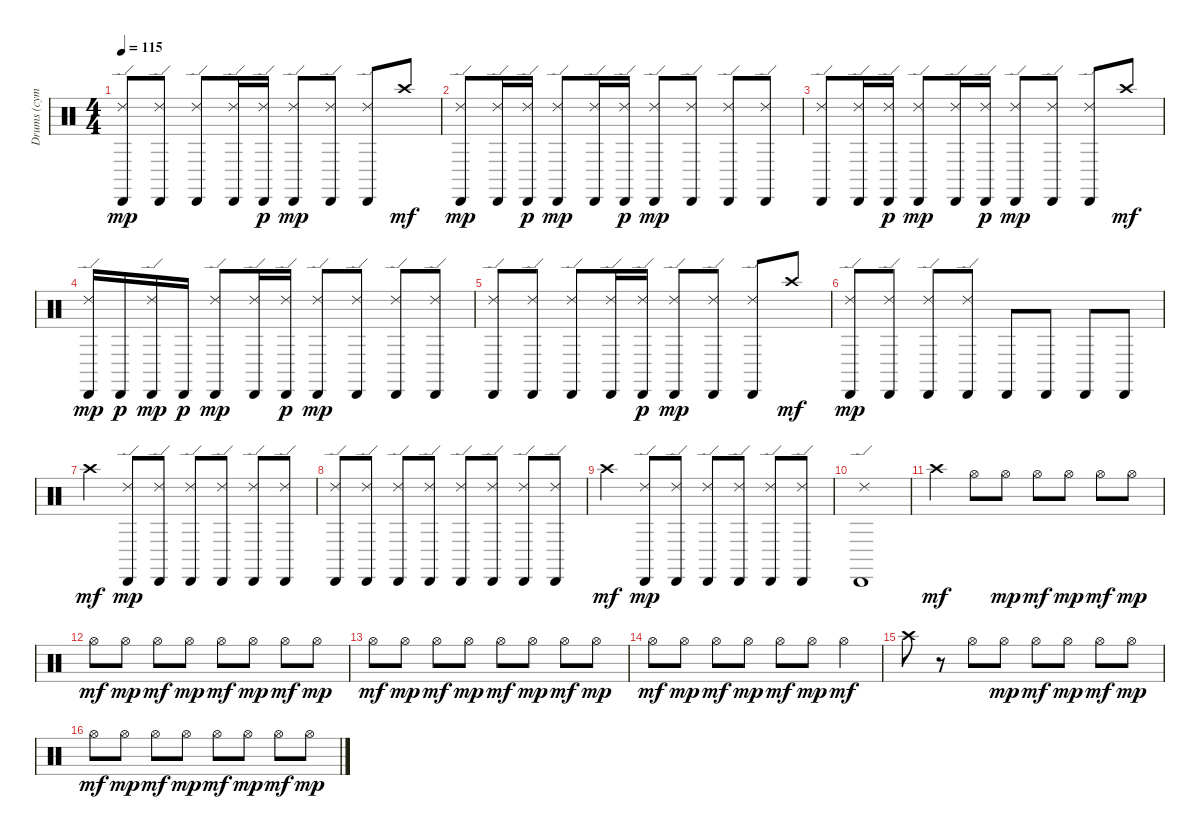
\track ("Drums (cymbals)" "Drums (cym") {instrument percussion}
\staff {score}
\articulation defaults
\ts (4 4)
\tempo 115
\clef neutral
\ks c
("Ride (edge) 2" "Cabasa (hit)").8{dy mp} ("Ride (edge) 2" "Cabasa (hit)").8 ("Ride (edge) 2" "Cabasa (hit)").8 ("Ride (edge) 2" "Cabasa (hit)").16 ("Ride (edge) 2" "Cabasa (hit)").16{dy p} ("Ride (edge) 2" "Cabasa (hit)").8{dy mp} ("Ride (edge) 2" "Cabasa (hit)").8 ("Ride (edge) 2" "Cabasa (hit)").8 "Crash high (hit)".8{dy mf} |
("Ride (edge) 2" "Cabasa (hit)").8{dy mp} ("Ride (edge) 2" "Cabasa (hit)").16 ("Ride (edge) 2" "Cabasa (hit)").16{dy p} ("Ride (edge) 2" "Cabasa (hit)").8{dy mp} ("Ride (edge) 2" "Cabasa (hit)").16 ("Ride (edge) 2" "Cabasa (hit)").16{dy p} ("Ride (edge) 2" "Cabasa (hit)").8{dy mp} ("Ride (edge) 2" "Cabasa (hit)").8 ("Ride (edge) 2" "Cabasa (hit)").8 ("Ride (edge) 2" "Cabasa (hit)").8 |
("Ride (edge) 2" "Cabasa (hit)").8 ("Ride (edge) 2" "Cabasa (hit)").16 ("Ride (edge) 2" "Cabasa (hit)").16{dy p} ("Ride (edge) 2" "Cabasa (hit)").8{dy mp} ("Ride (edge) 2" "Cabasa (hit)").16 ("Ride (edge) 2" "Cabasa (hit)").16{dy p} ("Ride (edge) 2" "Cabasa (hit)").8{dy mp} ("Ride (edge) 2" "Cabasa (hit)").8 ("Ride (edge) 2" "Cabasa (hit)").8 "Crash high (hit)".8{dy mf} |
("Ride (edge) 2" "Cabasa (hit)").16{dy mp} "Cabasa (hit)".16{dy p} ("Ride (edge) 2" "Cabasa (hit)").16{dy mp} "Cabasa (hit)".16{dy p} ("Ride (edge) 2" "Cabasa (hit)").8{dy mp} ("Ride (edge) 2" "Cabasa (hit)").16 ("Ride (edge) 2" "Cabasa (hit)").16{dy p} ("Ride (edge) 2" "Cabasa (hit)").8{dy mp} ("Ride (edge) 2" "Cabasa (hit)").8 ("Ride (edge) 2" "Cabasa (hit)").8 ("Ride (edge) 2" "Cabasa (hit)").8 |
("Ride (edge) 2" "Cabasa (hit)").8 ("Ride (edge) 2" "Cabasa (hit)").8 ("Ride (edge) 2" "Cabasa (hit)").8 ("Ride (edge) 2" "Cabasa (hit)").16 ("Ride (edge) 2" "Cabasa (hit)").16{dy p} ("Ride (edge) 2" "Cabasa (hit)").8{dy mp} ("Ride (edge) 2" "Cabasa (hit)").8 ("Ride (edge) 2" "Cabasa (hit)").8 "Crash high (hit)".8{dy mf} |
("Ride (edge) 2" "Cabasa (hit)").8{dy mp} ("Ride (edge) 2" "Cabasa (hit)").8 ("Ride (edge) 2" "Cabasa (hit)").8 ("Ride (edge) 2" "Cabasa (hit)").8 "Cabasa (hit)".8 "Cabasa (hit)".8 "Cabasa (hit)".8 "Cabasa (hit)".8 |
"Crash high (hit)".4{dy mf} ("Ride (edge) 2" "Cabasa (hit)").8{dy mp} ("Ride (edge) 2" "Cabasa (hit)").8 ("Ride (edge) 2" "Cabasa (hit)").8 ("Ride (edge) 2" "Cabasa (hit)").8 ("Ride (edge) 2" "Cabasa (hit)").8 ("Ride (edge) 2" "Cabasa (hit)").8 |
("Ride (edge) 2" "Cabasa (hit)").8 ("Ride (edge) 2" "Cabasa (hit)").8 ("Ride (edge) 2" "Cabasa (hit)").8 ("Ride (edge) 2" "Cabasa (hit)").8 ("Ride (edge) 2" "Cabasa (hit)").8 ("Ride (edge) 2" "Cabasa (hit)").8 ("Ride (edge) 2" "Cabasa (hit)").8 ("Ride (edge) 2" "Cabasa (hit)").8 |
"Crash high (hit)".4{dy mf} ("Ride (edge) 2" "Cabasa (hit)").8{dy mp} ("Ride (edge) 2" "Cabasa (hit)").8 ("Ride (edge) 2" "Cabasa (hit)").8 ("Ride (edge) 2" "Cabasa (hit)").8 ("Ride (edge) 2" "Cabasa (hit)").8 ("Ride (edge) 2" "Cabasa (hit)").8 |
("Ride (edge) 2" "Cabasa (hit)").1 |
"Crash high (hit)".4{dy mf} "Hi-Hat (open)".8 "Hi-Hat (open)".8{dy mp} "Hi-Hat (open)".8{dy mf} "Hi-Hat (open)".8{dy mp} "Hi-Hat (open)".8{dy mf} "Hi-Hat (open)".8{dy mp} |
"Hi-Hat (open)".8{dy mf} "Hi-Hat (open)".8{dy mp} "Hi-Hat (open)".8{dy mf} "Hi-Hat (open)".8{dy mp} "Hi-Hat (open)".8{dy mf} "Hi-Hat (open)".8{dy mp} "Hi-Hat (open)".8{dy mf} "Hi-Hat (open)".8{dy mp} |
"Hi-Hat (open)".8{dy mf} "Hi-Hat (open)".8{dy mp} "Hi-Hat (open)".8{dy mf} "Hi-Hat (open)".8{dy mp} "Hi-Hat (open)".8{dy mf} "Hi-Hat (open)".8{dy mp} "Hi-Hat (open)".8{dy mf} "Hi-Hat (open)".8{dy mp} |
"Hi-Hat (open)".8{dy mf} "Hi-Hat (open)".8{dy mp} "Hi-Hat (open)".8{dy mf} "Hi-Hat (open)".8{dy mp} "Hi-Hat (open)".8{dy mf} "Hi-Hat (open)".8{dy mp} "Hi-Hat (open)".4{dy mf} |
"Crash high (hit)".8 r.8 "Hi-Hat (open)".8 "Hi-Hat (open)".8{dy mp} "Hi-Hat (open)".8{dy mf} "Hi-Hat (open)".8{dy mp} "Hi-Hat (open)".8{dy mf} "Hi-Hat (open)".8{dy mp} |
"Hi-Hat (open)".8{dy mf} "Hi-Hat (open)".8{dy mp} "Hi-Hat (open)".8{dy mf} "Hi-Hat (open)".8{dy mp} "Hi-Hat (open)".8{dy mf} "Hi-Hat (open)".8{dy mp} "Hi-Hat (open)".8{dy mf} "Hi-Hat (open)".8{dy mp}
